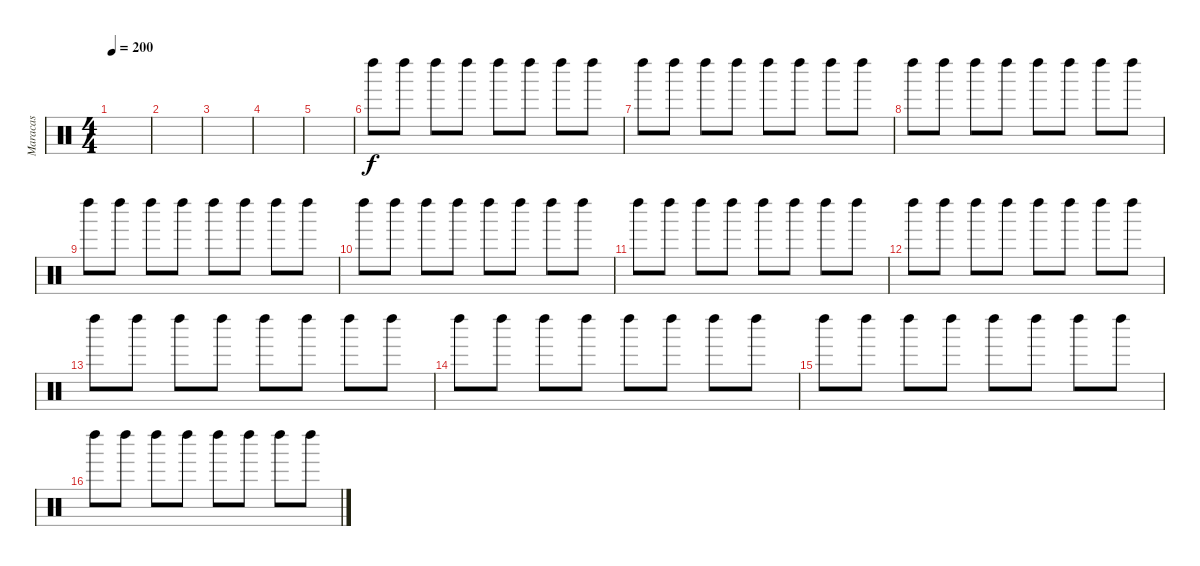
\track ("Maracas" "Maracas") {instrument percussion}
\staff {score}
\articulation defaults
\ts (4 4)
\tempo 200
\clef neutral
\ks c
|
|
|
|
|
"Left Maraca (hit)".8 "Left Maraca (hit)".8 "Left Maraca (hit)".8 "Left Maraca (hit)".8 "Left Maraca (hit)".8 "Left Maraca (hit)".8 "Left Maraca (hit)".8 "Left Maraca (hit)".8 |
"Left Maraca (hit)".8 "Left Maraca (hit)".8 "Left Maraca (hit)".8 "Left Maraca (hit)".8 "Left Maraca (hit)".8 "Left Maraca (hit)".8 "Left Maraca (hit)".8 "Left Maraca (hit)".8 |
"Left Maraca (hit)".8 "Left Maraca (hit)".8 "Left Maraca (hit)".8 "Left Maraca (hit)".8 "Left Maraca (hit)".8 "Left Maraca (hit)".8 "Left Maraca (hit)".8 "Left Maraca (hit)".8 |
"Left Maraca (hit)".8 "Left Maraca (hit)".8 "Left Maraca (hit)".8 "Left Maraca (hit)".8 "Left Maraca (hit)".8 "Left Maraca (hit)".8 "Left Maraca (hit)".8 "Left Maraca (hit)".8 |
"Left Maraca (hit)".8 "Left Maraca (hit)".8 "Left Maraca (hit)".8 "Left Maraca (hit)".8 "Left Maraca (hit)".8 "Left Maraca (hit)".8 "Left Maraca (hit)".8 "Left Maraca (hit)".8 |
"Left Maraca (hit)".8 "Left Maraca (hit)".8 "Left Maraca (hit)".8 "Left Maraca (hit)".8 "Left Maraca (hit)".8 "Left Maraca (hit)".8 "Left Maraca (hit)".8 "Left Maraca (hit)".8 |
"Left Maraca (hit)".8 "Left Maraca (hit)".8 "Left Maraca (hit)".8 "Left Maraca (hit)".8 "Left Maraca (hit)".8 "Left Maraca (hit)".8 "Left Maraca (hit)".8 "Left Maraca (hit)".8 |
"Left Maraca (hit)".8 "Left Maraca (hit)".8 "Left Maraca (hit)".8 "Left Maraca (hit)".8 "Left Maraca (hit)".8 "Left Maraca (hit)".8 "Left Maraca (hit)".8 "Left Maraca (hit)".8 |
"Left Maraca (hit)".8 "Left Maraca (hit)".8 "Left Maraca (hit)".8 "Left Maraca (hit)".8 "Left Maraca (hit)".8 "Left Maraca (hit)".8 "Left Maraca (hit)".8 "Left Maraca (hit)".8 |
"Left Maraca (hit)".8 "Left Maraca (hit)".8 "Left Maraca (hit)".8 "Left Maraca (hit)".8 "Left Maraca (hit)".8 "Left Maraca (hit)".8 "Left Maraca (hit)".8 "Left Maraca (hit)".8 |
"Left Maraca (hit)".8 "Left Maraca (hit)".8 "Left Maraca (hit)".8 "Left Maraca (hit)".8 "Left Maraca (hit)".8 "Left Maraca (hit)".8 "Left Maraca (hit)".8 "Left Maraca (hit)".8
